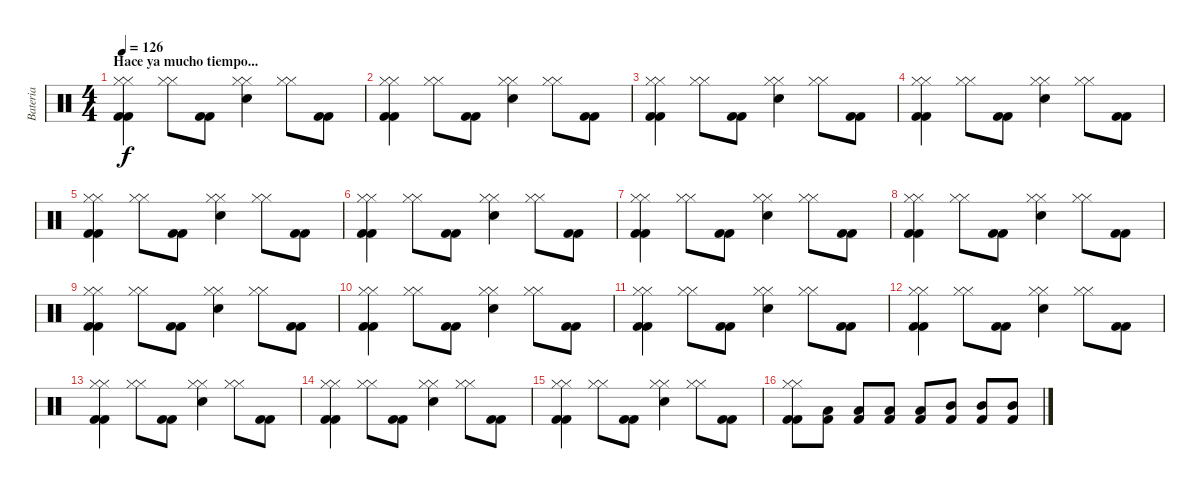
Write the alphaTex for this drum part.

\track ("Bateria" "Bateria") {instrument percussion}
\staff {score}
\articulation defaults
\ts (4 4)
\section ("" "Hace ya mucho tiempo...")
\tempo 126
\clef neutral
\ks c
("Hi-Hat (closed)" "Hi-Hat (closed)" "Kick (hit) 2" "Kick (hit) 2").4{dy f} ("Hi-Hat (closed)" "Hi-Hat (closed)").8 ("Kick (hit) 2" "Kick (hit) 2").8 ("Snare (hit) 2" "Hi-Hat (closed)" "Hi-Hat (closed)").4 ("Hi-Hat (closed)" "Hi-Hat (closed)").8 ("Kick (hit) 2" "Kick (hit) 2").8 |
("Hi-Hat (closed)" "Hi-Hat (closed)" "Kick (hit) 2" "Kick (hit) 2").4 ("Hi-Hat (closed)" "Hi-Hat (closed)").8 ("Kick (hit) 2" "Kick (hit) 2").8 ("Snare (hit) 2" "Hi-Hat (closed)" "Hi-Hat (closed)").4 ("Hi-Hat (closed)" "Hi-Hat (closed)").8 ("Kick (hit) 2" "Kick (hit) 2").8 |
("Hi-Hat (closed)" "Hi-Hat (closed)" "Kick (hit) 2" "Kick (hit) 2").4 ("Hi-Hat (closed)" "Hi-Hat (closed)").8 ("Kick (hit) 2" "Kick (hit) 2").8 ("Snare (hit) 2" "Hi-Hat (closed)" "Hi-Hat (closed)").4 ("Hi-Hat (closed)" "Hi-Hat (closed)").8 ("Kick (hit) 2" "Kick (hit) 2").8 |
("Hi-Hat (closed)" "Hi-Hat (closed)" "Kick (hit) 2" "Kick (hit) 2").4 ("Hi-Hat (closed)" "Hi-Hat (closed)").8 ("Kick (hit) 2" "Kick (hit) 2").8 ("Snare (hit) 2" "Hi-Hat (closed)" "Hi-Hat (closed)").4 ("Hi-Hat (closed)" "Hi-Hat (closed)").8 ("Kick (hit) 2" "Kick (hit) 2").8 |
("Hi-Hat (closed)" "Hi-Hat (closed)" "Kick (hit) 2" "Kick (hit) 2").4 ("Hi-Hat (closed)" "Hi-Hat (closed)").8 ("Kick (hit) 2" "Kick (hit) 2").8 ("Snare (hit) 2" "Hi-Hat (closed)" "Hi-Hat (closed)").4 ("Hi-Hat (closed)" "Hi-Hat (closed)").8 ("Kick (hit) 2" "Kick (hit) 2").8 |
("Hi-Hat (closed)" "Hi-Hat (closed)" "Kick (hit) 2" "Kick (hit) 2").4 ("Hi-Hat (closed)" "Hi-Hat (closed)").8 ("Kick (hit) 2" "Kick (hit) 2").8 ("Snare (hit) 2" "Hi-Hat (closed)" "Hi-Hat (closed)").4 ("Hi-Hat (closed)" "Hi-Hat (closed)").8 ("Kick (hit) 2" "Kick (hit) 2").8 |
("Hi-Hat (closed)" "Hi-Hat (closed)" "Kick (hit) 2" "Kick (hit) 2").4 ("Hi-Hat (closed)" "Hi-Hat (closed)").8 ("Kick (hit) 2" "Kick (hit) 2").8 ("Snare (hit) 2" "Hi-Hat (closed)" "Hi-Hat (closed)").4 ("Hi-Hat (closed)" "Hi-Hat (closed)").8 ("Kick (hit) 2" "Kick (hit) 2").8 |
("Hi-Hat (closed)" "Hi-Hat (closed)" "Kick (hit) 2" "Kick (hit) 2").4 ("Hi-Hat (closed)" "Hi-Hat (closed)").8 ("Kick (hit) 2" "Kick (hit) 2").8 ("Snare (hit) 2" "Hi-Hat (closed)" "Hi-Hat (closed)").4 ("Hi-Hat (closed)" "Hi-Hat (closed)").8 ("Kick (hit) 2" "Kick (hit) 2").8 |
("Hi-Hat (closed)" "Hi-Hat (closed)" "Kick (hit) 2" "Kick (hit) 2").4 ("Hi-Hat (closed)" "Hi-Hat (closed)").8 ("Kick (hit) 2" "Kick (hit) 2").8 ("Snare (hit) 2" "Hi-Hat (closed)" "Hi-Hat (closed)").4 ("Hi-Hat (closed)" "Hi-Hat (closed)").8 ("Kick (hit) 2" "Kick (hit) 2").8 |
("Hi-Hat (closed)" "Hi-Hat (closed)" "Kick (hit) 2" "Kick (hit) 2").4 ("Hi-Hat (closed)" "Hi-Hat (closed)").8 ("Kick (hit) 2" "Kick (hit) 2").8 ("Snare (hit) 2" "Hi-Hat (closed)" "Hi-Hat (closed)").4 ("Hi-Hat (closed)" "Hi-Hat (closed)").8 ("Kick (hit) 2" "Kick (hit) 2").8 |
("Hi-Hat (closed)" "Hi-Hat (closed)" "Kick (hit) 2" "Kick (hit) 2").4 ("Hi-Hat (closed)" "Hi-Hat (closed)").8 ("Kick (hit) 2" "Kick (hit) 2").8 ("Snare (hit) 2" "Hi-Hat (closed)" "Hi-Hat (closed)").4 ("Hi-Hat (closed)" "Hi-Hat (closed)").8 ("Kick (hit) 2" "Kick (hit) 2").8 |
("Hi-Hat (closed)" "Hi-Hat (closed)" "Kick (hit) 2" "Kick (hit) 2").4 ("Hi-Hat (closed)" "Hi-Hat (closed)").8 ("Kick (hit) 2" "Kick (hit) 2").8 ("Snare (hit) 2" "Hi-Hat (closed)" "Hi-Hat (closed)").4 ("Hi-Hat (closed)" "Hi-Hat (closed)").8 ("Kick (hit) 2" "Kick (hit) 2").8 |
("Hi-Hat (closed)" "Hi-Hat (closed)" "Kick (hit) 2" "Kick (hit) 2").4 ("Hi-Hat (closed)" "Hi-Hat (closed)").8 ("Kick (hit) 2" "Kick (hit) 2").8 ("Snare (hit) 2" "Hi-Hat (closed)" "Hi-Hat (closed)").4 ("Hi-Hat (closed)" "Hi-Hat (closed)").8 ("Kick (hit) 2" "Kick (hit) 2").8 |
("Hi-Hat (closed)" "Hi-Hat (closed)" "Kick (hit) 2" "Kick (hit) 2").4 ("Hi-Hat (closed)" "Hi-Hat (closed)").8 ("Kick (hit) 2" "Kick (hit) 2").8 ("Snare (hit) 2" "Hi-Hat (closed)" "Hi-Hat (closed)").4 ("Hi-Hat (closed)" "Hi-Hat (closed)").8 ("Kick (hit) 2" "Kick (hit) 2").8 |
("Hi-Hat (closed)" "Hi-Hat (closed)" "Kick (hit) 2" "Kick (hit) 2").4 ("Hi-Hat (closed)" "Hi-Hat (closed)").8 ("Kick (hit) 2" "Kick (hit) 2").8 ("Snare (hit) 2" "Hi-Hat (closed)" "Hi-Hat (closed)").4 ("Hi-Hat (closed)" "Hi-Hat (closed)").8 ("Kick (hit) 2" "Kick (hit) 2").8 |
("Hi-Hat (closed)" "Hi-Hat (closed)" "Kick (hit) 2" "Kick (hit) 2").8 ("Low Tom (hit)" "Kick (hit) 2").8 ("Low Tom (hit)" "Kick (hit) 2").8 ("Low Tom (hit)" "Kick (hit) 2").8 ("Low Tom (hit)" "Kick (hit) 2").8 ("Mid Tom (hit)" "Kick (hit) 2").8 ("Mid Tom (hit)" "Kick (hit) 2").8 ("Mid Tom (hit)" "Kick (hit) 2").8
